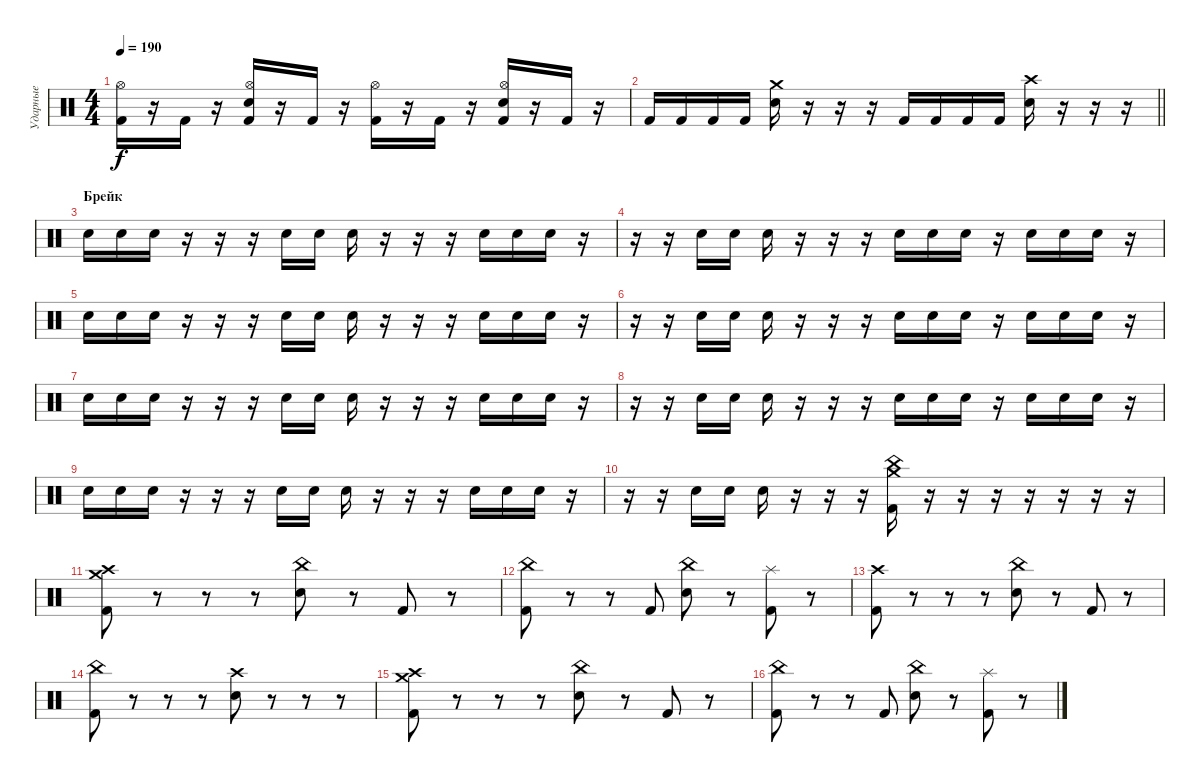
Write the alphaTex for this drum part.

\track ("Ударные" "Ударные") {instrument percussion}
\staff {score}
\articulation defaults
\ts (4 4)
\tempo 190
\clef neutral
\ks c
("Kick (hit) 2" "Hi-Hat (open)").16{dy f} r.16 "Kick (hit) 2".16 r.16 ("Kick (hit) 2" "Electric Snare (hit)" "Hi-Hat (open)").16 r.16 "Kick (hit) 2".16 r.16 ("Kick (hit) 2" "Hi-Hat (open)").16 r.16 "Kick (hit) 2".16 r.16 ("Kick (hit) 2" "Electric Snare (hit)" "Hi-Hat (open)").16 r.16 "Kick (hit) 2".16 r.16 |
\barLineRight lightlight "Kick (hit) 2".16 "Kick (hit) 2".16 "Kick (hit) 2".16 "Kick (hit) 2".16
("Electric Snare (hit)" "Crash medium (hit)").16 r.16 r.16 r.16 "Kick (hit) 2".16 "Kick (hit) 2".16 "Kick (hit) 2".16 "Kick (hit) 2".16 ("Electric Snare (hit)" "Crash high (hit)").16 r.16 r.16 r.16 |
\section ("" "Брейк")
"Electric Snare (hit)".16 "Electric Snare (hit)".16 "Electric Snare (hit)".16 r.16 r.16 r.16 "Electric Snare (hit)".16 "Electric Snare (hit)".16 "Electric Snare (hit)".16 r.16 r.16 r.16 "Electric Snare (hit)".16 "Electric Snare (hit)".16 "Electric Snare (hit)".16 r.16 |
r.16 r.16 "Electric Snare (hit)".16 "Electric Snare (hit)".16 "Electric Snare (hit)".16 r.16 r.16 r.16 "Electric Snare (hit)".16 "Electric Snare (hit)".16 "Electric Snare (hit)".16 r.16 "Electric Snare (hit)".16 "Electric Snare (hit)".16 "Electric Snare (hit)".16 r.16 |
"Electric Snare (hit)".16 "Electric Snare (hit)".16 "Electric Snare (hit)".16 r.16 r.16 r.16 "Electric Snare (hit)".16 "Electric Snare (hit)".16 "Electric Snare (hit)".16 r.16 r.16 r.16 "Electric Snare (hit)".16 "Electric Snare (hit)".16 "Electric Snare (hit)".16 r.16 |
r.16 r.16 "Electric Snare (hit)".16 "Electric Snare (hit)".16 "Electric Snare (hit)".16 r.16 r.16 r.16 "Electric Snare (hit)".16 "Electric Snare (hit)".16 "Electric Snare (hit)".16 r.16 "Electric Snare (hit)".16 "Electric Snare (hit)".16 "Electric Snare (hit)".16 r.16 |
"Electric Snare (hit)".16 "Electric Snare (hit)".16 "Electric Snare (hit)".16 r.16 r.16 r.16 "Electric Snare (hit)".16 "Electric Snare (hit)".16 "Electric Snare (hit)".16 r.16 r.16 r.16 "Electric Snare (hit)".16 "Electric Snare (hit)".16 "Electric Snare (hit)".16 r.16 |
r.16 r.16 "Electric Snare (hit)".16 "Electric Snare (hit)".16 "Electric Snare (hit)".16 r.16 r.16 r.16 "Electric Snare (hit)".16 "Electric Snare (hit)".16 "Electric Snare (hit)".16 r.16 "Electric Snare (hit)".16 "Electric Snare (hit)".16 "Electric Snare (hit)".16 r.16 |
"Electric Snare (hit)".16 "Electric Snare (hit)".16 "Electric Snare (hit)".16 r.16 r.16 r.16 "Electric Snare (hit)".16 "Electric Snare (hit)".16 "Electric Snare (hit)".16 r.16 r.16 r.16 "Electric Snare (hit)".16 "Electric Snare (hit)".16 "Electric Snare (hit)".16 r.16 |
r.16 r.16 "Electric Snare (hit)".16 "Electric Snare (hit)".16 "Electric Snare (hit)".16 r.16 r.16 r.16 ("Kick (hit) 2" "Crash medium (hit)" "China (hit)").16 r.16 r.16 r.16 r.16 r.16 r.16 r.16 |
("Kick (hit) 2" "Crash medium (hit)" "Crash high (hit)").8 r.8 r.8 r.8 ("Electric Snare (hit)" "China (hit)").8 r.8 "Kick (hit) 2".8 r.8 |
("Kick (hit) 2" "China (hit)").8 r.8 r.8 "Kick (hit) 2".8 ("Electric Snare (hit)" "China (hit)").8 r.8 ("Kick (hit) 2" "Splash (hit)").8 r.8 |
("Kick (hit) 2" "Crash high (hit)").8 r.8 r.8 r.8 ("Electric Snare (hit)" "China (hit)").8 r.8 "Kick (hit) 2".8 r.8 |
("Kick (hit) 2" "China (hit)").8 r.8 r.8 r.8 ("Electric Snare (hit)" "Crash high (hit)").8 r.8 r.8 r.8 |
("Kick (hit) 2" "Crash medium (hit)" "Crash high (hit)").8 r.8 r.8 r.8 ("Electric Snare (hit)" "China (hit)").8 r.8 "Kick (hit) 2".8 r.8 |
("Kick (hit) 2" "China (hit)").8 r.8 r.8 "Kick (hit) 2".8 ("Electric Snare (hit)" "China (hit)").8 r.8 ("Kick (hit) 2" "Splash (hit)").8 r.8
